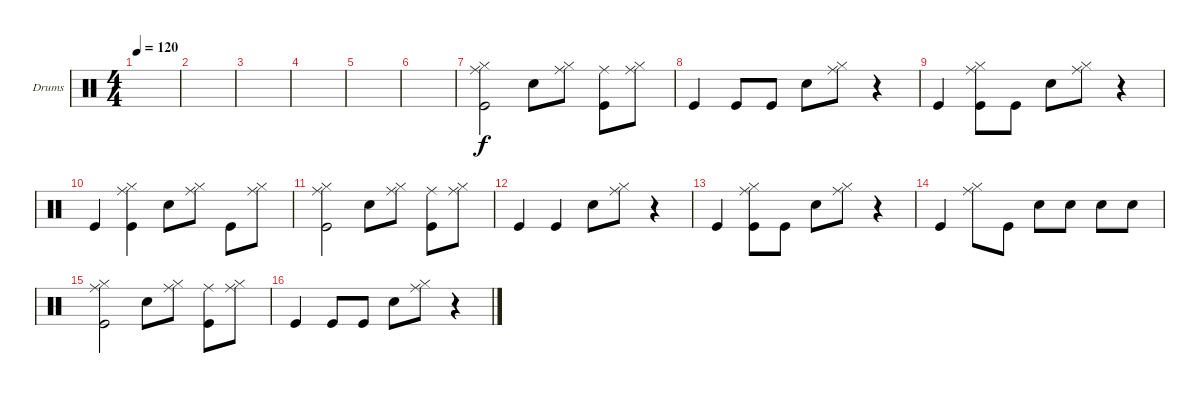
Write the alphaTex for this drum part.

\defaultSystemsLayout 4
\bracketExtendMode groupsimilarinstruments
\firstSystemTrackNameOrientation horizontal
\otherSystemsTrackNameOrientation horizontal
\track ("Drumkit" "Drums") {instrument percussion}
\staff {score}
\articulation defaults
\ts (4 4)
\tempo 120
\clef neutral
\scale
0.333333
\ks c
|
\scale
0.333333 |
\scale
0.333333 |
\scale
0.333333 |
\scale
0.333333 |
\scale
0.333333 |
\scale
0.333333 ("Kick (hit)" "Ride (middle)" "Hi-Hat (closed)").2 "Snare (hit) 2".8 ("Hi-Hat (closed)" "Ride (middle)").8 ("Kick (hit)" "Ride (middle)").8 ("Hi-Hat (closed)" "Ride (middle)").8 |
\scale
0.333333 "Kick (hit)".4 "Kick (hit)".8 "Kick (hit)".8 "Snare (hit) 2".8 ("Hi-Hat (closed)" "Ride (middle)").8 r.4 |
\scale
0.333333 "Kick (hit)".4 ("Kick (hit)" "Ride (middle)" "Hi-Hat (closed)").8 "Kick (hit)".8 "Snare (hit) 2".8 ("Hi-Hat (closed)" "Ride (middle)").8 r.4 |
\scale
0.333333 "Kick (hit)".4 ("Kick (hit)" "Ride (middle)" "Hi-Hat (closed)").4 "Snare (hit) 2".8 ("Ride (middle)" "Hi-Hat (closed)").8 "Kick (hit)".8 ("Ride (middle)" "Hi-Hat (closed)").8 |
\scale
0.333333 ("Kick (hit)" "Ride (middle)" "Hi-Hat (closed)").2 "Snare (hit) 2".8 ("Hi-Hat (closed)" "Ride (middle)").8 ("Kick (hit)" "Ride (middle)").8 ("Hi-Hat (closed)" "Ride (middle)").8 |
\scale
0.333333 "Kick (hit)".4 "Kick (hit)".4 "Snare (hit) 2".8 ("Hi-Hat (closed)" "Ride (middle)").8 r.4 |
\scale
0.333333 "Kick (hit)".4 ("Kick (hit)" "Ride (middle)" "Hi-Hat (closed)").8 "Kick (hit)".8 "Snare (hit) 2".8 ("Hi-Hat (closed)" "Ride (middle)").8 r.4 |
\scale
0.333333 "Kick (hit)".4 ("Ride (middle)" "Hi-Hat (closed)").8 "Kick (hit)".8 "Snare (hit) 2".8 "Snare (hit) 2".8 "Snare (hit) 2".8 "Snare (hit) 2".8 |
\scale
0.333333 ("Kick (hit)" "Ride (middle)" "Hi-Hat (closed)").2 "Snare (hit) 2".8 ("Hi-Hat (closed)" "Ride (middle)").8 ("Kick (hit)" "Ride (middle)").8 ("Hi-Hat (closed)" "Ride (middle)").8 |
\scale
0.333333 "Kick (hit)".4 "Kick (hit)".8 "Kick (hit)".8 "Snare (hit) 2".8 ("Hi-Hat (closed)" "Ride (middle)").8 r.4
